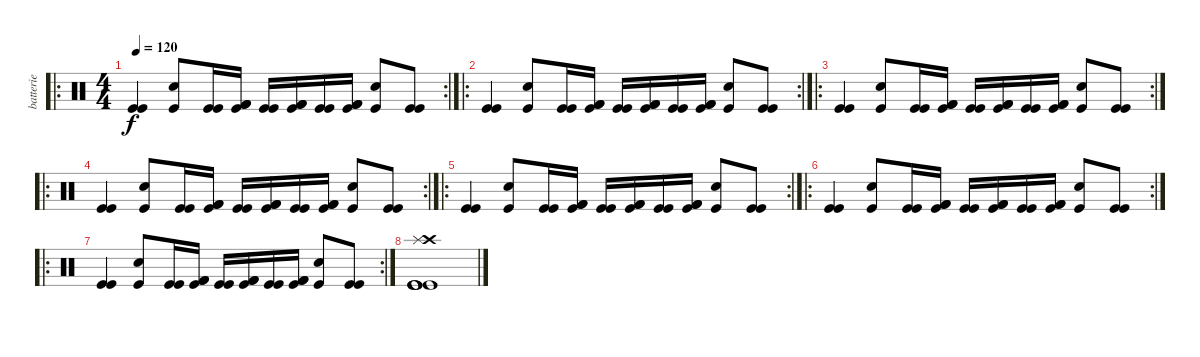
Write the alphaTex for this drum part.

\track ("batterie" "batterie") {instrument percussion}
\staff {score}
\articulation defaults
\ro
\rc 2
\ts (4 4)
\tempo 120
\clef neutral
\ks c
("Kick (hit)" "Kick (hit)").4{dy f} ("Snare (hit) 2" "Kick (hit)").8 ("Kick (hit)" "Kick (hit)").16 ("Kick (hit) 2" "Kick (hit) 2" "Kick (hit)").16 ("Kick (hit)" "Kick (hit)").16 ("Kick (hit) 2" "Kick (hit) 2" "Kick (hit)").16 ("Kick (hit)" "Kick (hit)").16 ("Kick (hit) 2" "Kick (hit) 2" "Kick (hit)").16 ("Snare (hit) 2" "Kick (hit)").8 ("Kick (hit)" "Kick (hit)").8 |
\ro
\rc 2
("Kick (hit)" "Kick (hit)").4 ("Snare (hit) 2" "Kick (hit)").8 ("Kick (hit)" "Kick (hit)").16 ("Kick (hit) 2" "Kick (hit) 2" "Kick (hit)").16 ("Kick (hit)" "Kick (hit)").16 ("Kick (hit) 2" "Kick (hit) 2" "Kick (hit)").16 ("Kick (hit)" "Kick (hit)").16 ("Kick (hit) 2" "Kick (hit) 2" "Kick (hit)").16 ("Snare (hit) 2" "Kick (hit)").8 ("Kick (hit)" "Kick (hit)").8 |
\ro
\rc 2
("Kick (hit)" "Kick (hit)").4 ("Snare (hit) 2" "Kick (hit)").8 ("Kick (hit)" "Kick (hit)").16 ("Kick (hit) 2" "Kick (hit) 2" "Kick (hit)").16 ("Kick (hit)" "Kick (hit)").16 ("Kick (hit) 2" "Kick (hit) 2" "Kick (hit)").16 ("Kick (hit)" "Kick (hit)").16 ("Kick (hit) 2" "Kick (hit) 2" "Kick (hit)").16 ("Snare (hit) 2" "Kick (hit)").8 ("Kick (hit)" "Kick (hit)").8 |
\ro
\rc 2
("Kick (hit)" "Kick (hit)").4 ("Snare (hit) 2" "Kick (hit)").8 ("Kick (hit)" "Kick (hit)").16 ("Kick (hit) 2" "Kick (hit) 2" "Kick (hit)").16 ("Kick (hit)" "Kick (hit)").16 ("Kick (hit) 2" "Kick (hit) 2" "Kick (hit)").16 ("Kick (hit)" "Kick (hit)").16 ("Kick (hit) 2" "Kick (hit) 2" "Kick (hit)").16 ("Snare (hit) 2" "Kick (hit)").8 ("Kick (hit)" "Kick (hit)").8 |
\ro
\rc 2
("Kick (hit)" "Kick (hit)").4 ("Snare (hit) 2" "Kick (hit)").8 ("Kick (hit)" "Kick (hit)").16 ("Kick (hit) 2" "Kick (hit) 2" "Kick (hit)").16 ("Kick (hit)" "Kick (hit)").16 ("Kick (hit) 2" "Kick (hit) 2" "Kick (hit)").16 ("Kick (hit)" "Kick (hit)").16 ("Kick (hit) 2" "Kick (hit) 2" "Kick (hit)").16 ("Snare (hit) 2" "Kick (hit)").8 ("Kick (hit)" "Kick (hit)").8 |
\ro
\rc 2
("Kick (hit)" "Kick (hit)").4 ("Snare (hit) 2" "Kick (hit)").8 ("Kick (hit)" "Kick (hit)").16 ("Kick (hit) 2" "Kick (hit) 2" "Kick (hit)").16 ("Kick (hit)" "Kick (hit)").16 ("Kick (hit) 2" "Kick (hit) 2" "Kick (hit)").16 ("Kick (hit)" "Kick (hit)").16 ("Kick (hit) 2" "Kick (hit) 2" "Kick (hit)").16 ("Snare (hit) 2" "Kick (hit)").8 ("Kick (hit)" "Kick (hit)").8 |
\ro
\rc 2
("Kick (hit)" "Kick (hit)").4 ("Snare (hit) 2" "Kick (hit)").8 ("Kick (hit)" "Kick (hit)").16 ("Kick (hit) 2" "Kick (hit) 2" "Kick (hit)").16 ("Kick (hit)" "Kick (hit)").16 ("Kick (hit) 2" "Kick (hit) 2" "Kick (hit)").16 ("Kick (hit)" "Kick (hit)").16 ("Kick (hit) 2" "Kick (hit) 2" "Kick (hit)").16 ("Snare (hit) 2" "Kick (hit)").8 ("Kick (hit)" "Kick (hit)").8 |
("Crash high (hit)" "Splash (hit)" "Kick (hit)" "Kick (hit)" "Kick (hit)" "Kick (hit)").1
